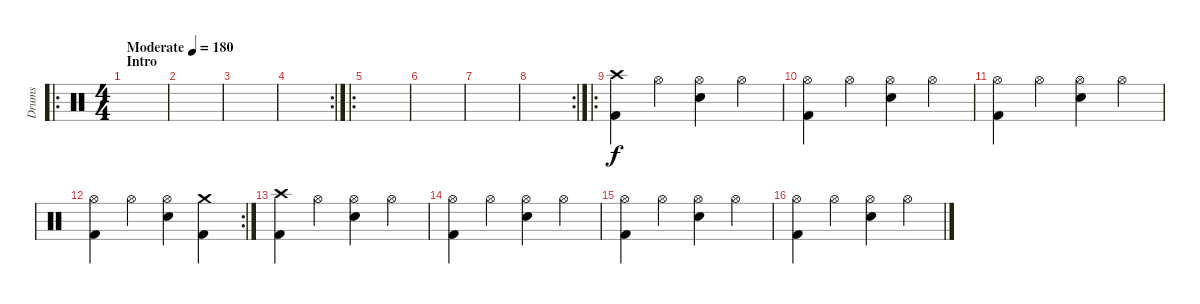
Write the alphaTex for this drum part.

\track ("Drums" "Drums") {instrument percussion}
\staff {score}
\articulation defaults
\ro
\ts (4 4)
\section ("" "Intro")
\tempo (180 "Moderate")
\clef neutral
\ks c
|
|
|
\rc 2
|
\ro
|
|
|
\rc 2
|
\ro
("Crash high (hit)" "Kick (hit) 2").4 "Hi-Hat (open)".4 ("Hi-Hat (open)" "Electric Snare (hit)").4 "Hi-Hat (open)".4 |
("Hi-Hat (open)" "Kick (hit) 2").4 "Hi-Hat (open)".4 ("Hi-Hat (open)" "Electric Snare (hit)").4 "Hi-Hat (open)".4 |
("Hi-Hat (open)" "Kick (hit) 2").4 "Hi-Hat (open)".4 ("Hi-Hat (open)" "Electric Snare (hit)").4 "Hi-Hat (open)".4 |
\rc 2
("Hi-Hat (open)" "Kick (hit) 2").4 "Hi-Hat (open)".4 ("Hi-Hat (open)" "Electric Snare (hit)").4 ("Crash medium (hit)" "Kick (hit) 2").4 |
("Crash high (hit)" "Kick (hit) 2").4 "Hi-Hat (open)".4 ("Hi-Hat (open)" "Electric Snare (hit)").4 "Hi-Hat (open)".4 |
("Hi-Hat (open)" "Kick (hit) 2").4 "Hi-Hat (open)".4 ("Hi-Hat (open)" "Electric Snare (hit)").4 "Hi-Hat (open)".4 |
("Hi-Hat (open)" "Kick (hit) 2").4 "Hi-Hat (open)".4 ("Hi-Hat (open)" "Electric Snare (hit)").4 "Hi-Hat (open)".4 |
("Hi-Hat (open)" "Kick (hit) 2").4 "Hi-Hat (open)".4 ("Hi-Hat (open)" "Electric Snare (hit)").4 "Hi-Hat (open)".4
